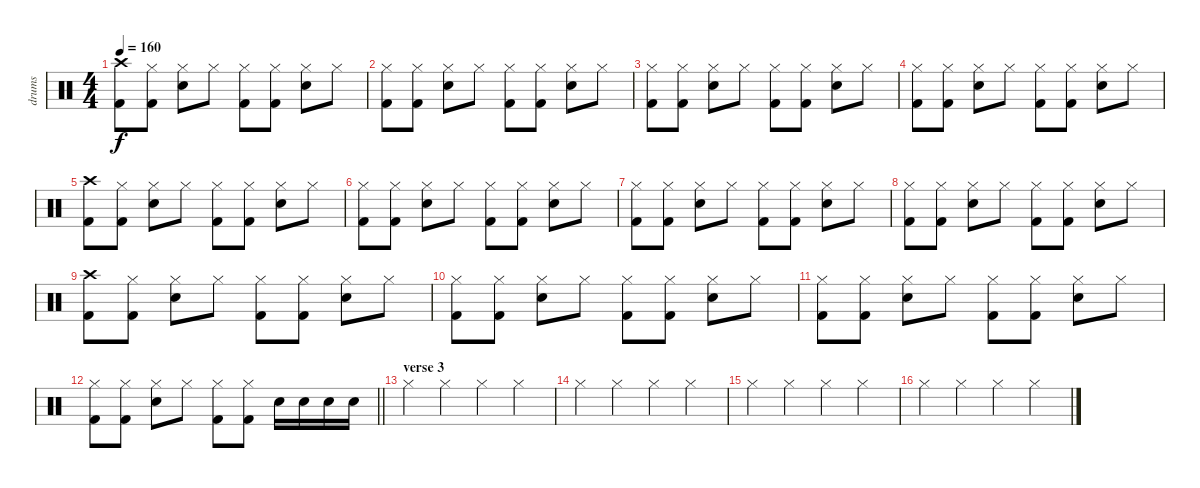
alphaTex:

\track ("drums" "drums") {instrument percussion}
\staff {score}
\articulation defaults
\ts (4 4)
\tempo 160
\clef neutral
\ks c
("Crash high (hit)" "Kick (hit) 2").8{dy f} ("Hi-Hat (closed)" "Kick (hit) 2").8 ("Hi-Hat (closed)" "Electric Snare (hit)").8 "Hi-Hat (closed)".8 ("Hi-Hat (closed)" "Kick (hit) 2").8 ("Hi-Hat (closed)" "Kick (hit) 2").8 ("Hi-Hat (closed)" "Electric Snare (hit)").8 "Hi-Hat (closed)".8 |
("Hi-Hat (closed)" "Kick (hit) 2").8 ("Hi-Hat (closed)" "Kick (hit) 2").8 ("Hi-Hat (closed)" "Electric Snare (hit)").8 "Hi-Hat (closed)".8 ("Hi-Hat (closed)" "Kick (hit) 2").8 ("Hi-Hat (closed)" "Kick (hit) 2").8 ("Hi-Hat (closed)" "Electric Snare (hit)").8 "Hi-Hat (closed)".8 |
("Hi-Hat (closed)" "Kick (hit) 2").8 ("Hi-Hat (closed)" "Kick (hit) 2").8 ("Hi-Hat (closed)" "Electric Snare (hit)").8 "Hi-Hat (closed)".8 ("Hi-Hat (closed)" "Kick (hit) 2").8 ("Hi-Hat (closed)" "Kick (hit) 2").8 ("Hi-Hat (closed)" "Electric Snare (hit)").8 "Hi-Hat (closed)".8 |
("Hi-Hat (closed)" "Kick (hit) 2").8 ("Hi-Hat (closed)" "Kick (hit) 2").8 ("Hi-Hat (closed)" "Electric Snare (hit)").8 "Hi-Hat (closed)".8 ("Hi-Hat (closed)" "Kick (hit) 2").8 ("Hi-Hat (closed)" "Kick (hit) 2").8 ("Hi-Hat (closed)" "Electric Snare (hit)").8 "Hi-Hat (closed)".8 |
("Crash high (hit)" "Kick (hit) 2").8 ("Hi-Hat (closed)" "Kick (hit) 2").8 ("Hi-Hat (closed)" "Electric Snare (hit)").8 "Hi-Hat (closed)".8 ("Hi-Hat (closed)" "Kick (hit) 2").8 ("Hi-Hat (closed)" "Kick (hit) 2").8 ("Hi-Hat (closed)" "Electric Snare (hit)").8 "Hi-Hat (closed)".8 |
("Hi-Hat (closed)" "Kick (hit) 2").8 ("Hi-Hat (closed)" "Kick (hit) 2").8 ("Hi-Hat (closed)" "Electric Snare (hit)").8 "Hi-Hat (closed)".8 ("Hi-Hat (closed)" "Kick (hit) 2").8 ("Hi-Hat (closed)" "Kick (hit) 2").8 ("Hi-Hat (closed)" "Electric Snare (hit)").8 "Hi-Hat (closed)".8 |
("Hi-Hat (closed)" "Kick (hit) 2").8 ("Hi-Hat (closed)" "Kick (hit) 2").8 ("Hi-Hat (closed)" "Electric Snare (hit)").8 "Hi-Hat (closed)".8 ("Hi-Hat (closed)" "Kick (hit) 2").8 ("Hi-Hat (closed)" "Kick (hit) 2").8 ("Hi-Hat (closed)" "Electric Snare (hit)").8 "Hi-Hat (closed)".8 |
("Hi-Hat (closed)" "Kick (hit) 2").8 ("Hi-Hat (closed)" "Kick (hit) 2").8 ("Hi-Hat (closed)" "Electric Snare (hit)").8 "Hi-Hat (closed)".8 ("Hi-Hat (closed)" "Kick (hit) 2").8 ("Hi-Hat (closed)" "Kick (hit) 2").8 ("Hi-Hat (closed)" "Electric Snare (hit)").8 "Hi-Hat (closed)".8 |
("Crash high (hit)" "Kick (hit) 2").8 ("Hi-Hat (closed)" "Kick (hit) 2").8 ("Hi-Hat (closed)" "Electric Snare (hit)").8 "Hi-Hat (closed)".8 ("Hi-Hat (closed)" "Kick (hit) 2").8 ("Hi-Hat (closed)" "Kick (hit) 2").8 ("Hi-Hat (closed)" "Electric Snare (hit)").8 "Hi-Hat (closed)".8 |
("Hi-Hat (closed)" "Kick (hit) 2").8 ("Hi-Hat (closed)" "Kick (hit) 2").8 ("Hi-Hat (closed)" "Electric Snare (hit)").8 "Hi-Hat (closed)".8 ("Hi-Hat (closed)" "Kick (hit) 2").8 ("Hi-Hat (closed)" "Kick (hit) 2").8 ("Hi-Hat (closed)" "Electric Snare (hit)").8 "Hi-Hat (closed)".8 |
("Hi-Hat (closed)" "Kick (hit) 2").8 ("Hi-Hat (closed)" "Kick (hit) 2").8 ("Hi-Hat (closed)" "Electric Snare (hit)").8 "Hi-Hat (closed)".8 ("Hi-Hat (closed)" "Kick (hit) 2").8 ("Hi-Hat (closed)" "Kick (hit) 2").8 ("Hi-Hat (closed)" "Electric Snare (hit)").8 "Hi-Hat (closed)".8 |
\barLineRight lightlight
("Hi-Hat (closed)" "Kick (hit) 2").8 ("Hi-Hat (closed)" "Kick (hit) 2").8 ("Hi-Hat (closed)" "Electric Snare (hit)").8 "Hi-Hat (closed)".8 ("Hi-Hat (closed)" "Kick (hit) 2").8 ("Hi-Hat (closed)" "Kick (hit) 2").8 "Electric Snare (hit)".16 "Electric Snare (hit)".16 "Electric Snare (hit)".16 "Electric Snare (hit)".16 |
\section ("" "verse 3")
"Hi-Hat (closed)".4 "Hi-Hat (closed)".4 "Hi-Hat (closed)".4 "Hi-Hat (closed)".4 |
"Hi-Hat (closed)".4 "Hi-Hat (closed)".4 "Hi-Hat (closed)".4 "Hi-Hat (closed)".4 |
"Hi-Hat (closed)".4 "Hi-Hat (closed)".4 "Hi-Hat (closed)".4 "Hi-Hat (closed)".4 |
"Hi-Hat (closed)".4 "Hi-Hat (closed)".4 "Hi-Hat (closed)".4 "Hi-Hat (closed)".4
